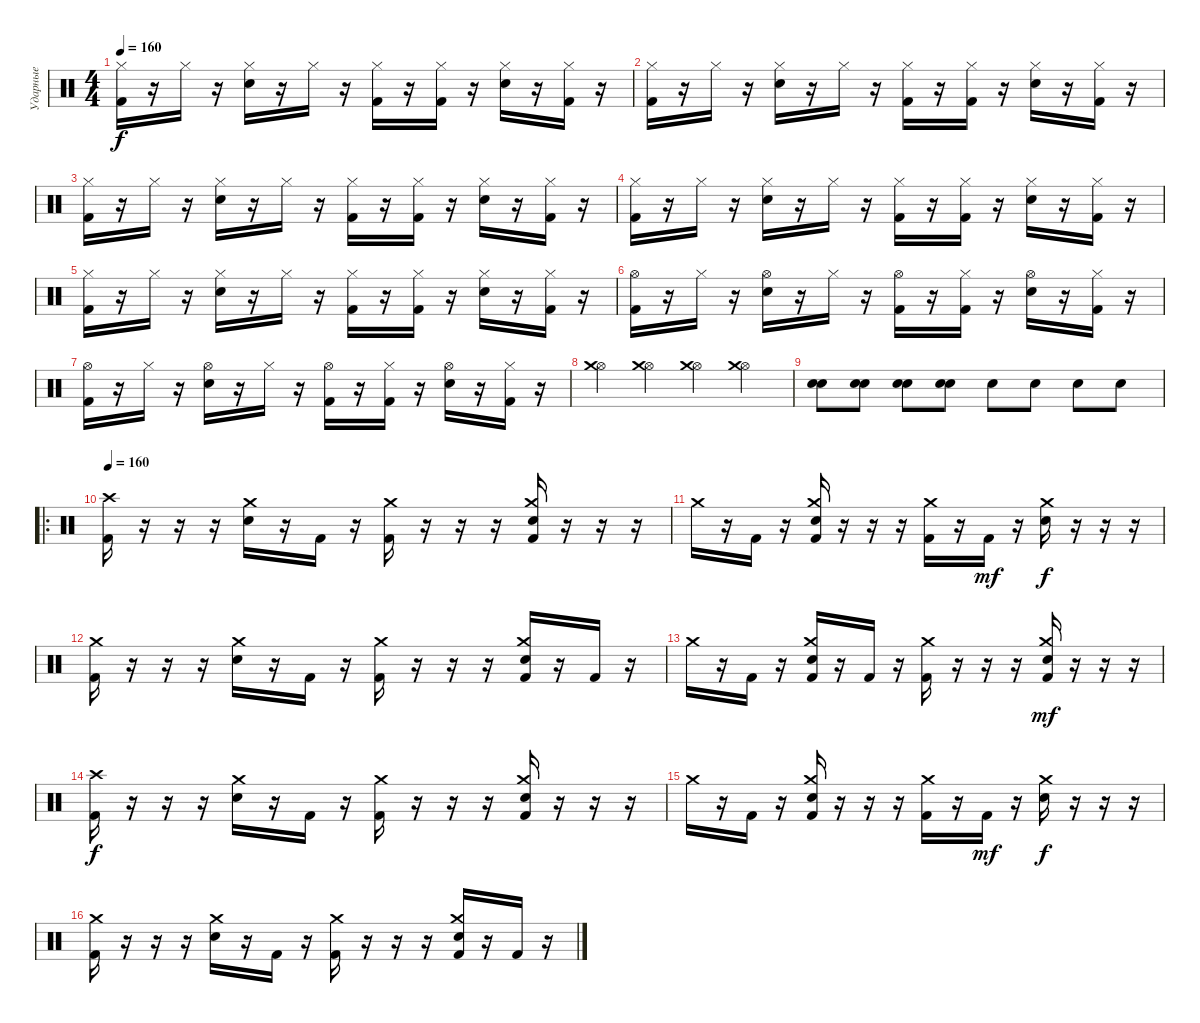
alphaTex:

\track ("Ударные" "Ударные") {instrument percussion}
\staff {score}
\articulation defaults
\ts (4 4)
\tempo 160
\clef neutral
\ks c
("Hi-Hat (closed)" "Kick (hit) 2").16{dy f} r.16 "Hi-Hat (closed)".16 r.16 ("Hi-Hat (closed)" "Snare (hit) 2").16 r.16 "Hi-Hat (closed)".16 r.16 ("Hi-Hat (closed)" "Kick (hit) 2").16 r.16 ("Hi-Hat (closed)" "Kick (hit) 2").16 r.16 ("Hi-Hat (closed)" "Snare (hit) 2").16 r.16 ("Hi-Hat (closed)" "Kick (hit) 2").16 r.16 |
("Hi-Hat (closed)" "Kick (hit) 2").16 r.16 "Hi-Hat (closed)".16 r.16 ("Hi-Hat (closed)" "Snare (hit) 2").16 r.16 "Hi-Hat (closed)".16 r.16 ("Hi-Hat (closed)" "Kick (hit) 2").16 r.16 ("Hi-Hat (closed)" "Kick (hit) 2").16 r.16 ("Hi-Hat (closed)" "Snare (hit) 2").16 r.16 ("Hi-Hat (closed)" "Kick (hit) 2").16 r.16 |
("Hi-Hat (closed)" "Kick (hit) 2").16 r.16 "Hi-Hat (closed)".16 r.16 ("Hi-Hat (closed)" "Snare (hit) 2").16 r.16 "Hi-Hat (closed)".16 r.16 ("Hi-Hat (closed)" "Kick (hit) 2").16 r.16 ("Hi-Hat (closed)" "Kick (hit) 2").16 r.16 ("Hi-Hat (closed)" "Snare (hit) 2").16 r.16 ("Hi-Hat (closed)" "Kick (hit) 2").16 r.16 |
("Hi-Hat (closed)" "Kick (hit) 2").16 r.16 "Hi-Hat (closed)".16 r.16 ("Hi-Hat (closed)" "Snare (hit) 2").16 r.16 "Hi-Hat (closed)".16 r.16 ("Hi-Hat (closed)" "Kick (hit) 2").16 r.16 ("Hi-Hat (closed)" "Kick (hit) 2").16 r.16 ("Hi-Hat (closed)" "Snare (hit) 2").16 r.16 ("Hi-Hat (closed)" "Kick (hit) 2").16 r.16 |
("Hi-Hat (closed)" "Kick (hit) 2").16 r.16 "Hi-Hat (closed)".16 r.16 ("Hi-Hat (closed)" "Snare (hit) 2").16 r.16 "Hi-Hat (closed)".16 r.16 ("Hi-Hat (closed)" "Kick (hit) 2").16 r.16 ("Hi-Hat (closed)" "Kick (hit) 2").16 r.16 ("Hi-Hat (closed)" "Snare (hit) 2").16 r.16 ("Hi-Hat (closed)" "Kick (hit) 2").16 r.16 |
("Hi-Hat (open)" "Kick (hit) 2").16 r.16 "Hi-Hat (closed)".16 r.16 ("Hi-Hat (open)" "Snare (hit) 2").16 r.16 "Hi-Hat (closed)".16 r.16 ("Hi-Hat (open)" "Kick (hit) 2").16 r.16 ("Hi-Hat (closed)" "Kick (hit) 2").16 r.16 ("Hi-Hat (open)" "Snare (hit) 2").16 r.16 ("Hi-Hat (closed)" "Kick (hit) 2").16 r.16 |
("Hi-Hat (open)" "Kick (hit) 2").16 r.16 "Hi-Hat (closed)".16 r.16 ("Hi-Hat (open)" "Snare (hit) 2").16 r.16 "Hi-Hat (closed)".16 r.16 ("Hi-Hat (open)" "Kick (hit) 2").16 r.16 ("Hi-Hat (closed)" "Kick (hit) 2").16 r.16 ("Hi-Hat (open)" "Snare (hit) 2").16 r.16 ("Hi-Hat (closed)" "Kick (hit) 2").16 r.16 |
("Hi-Hat (open)" "Crash medium (hit)").4{volume 16} ("Hi-Hat (open)" "Crash medium (hit)").4 ("Hi-Hat (open)" "Crash medium (hit)").4 ("Hi-Hat (open)" "Crash medium (hit)").4 |
("Snare (hit) 2" "Electric Snare (hit)").8{volume 16} ("Snare (hit) 2" "Electric Snare (hit)").8 ("Snare (hit) 2" "Electric Snare (hit)").8 ("Snare (hit) 2" "Electric Snare (hit)").8 "Electric Snare (hit)".8{volume 16} "Electric Snare (hit)".8 "Electric Snare (hit)".8 "Electric Snare (hit)".8 |
\ro
\tempo 190
\tempo 160
("Crash high (hit)" "Kick (hit) 2").16{volume 13} r.16 r.16 r.16 ("Crash medium (hit)" "Electric Snare (hit)").16 r.16 "Kick (hit) 2".16 r.16 ("Crash medium (hit)" "Kick (hit) 2").16 r.16 r.16 r.16 ("Crash medium (hit)" "Electric Snare (hit)" "Kick (hit) 2").16 r.16 r.16 r.16 |
"Crash medium (hit)".16 r.16 "Kick (hit) 2".16 r.16 ("Crash medium (hit)" "Electric Snare (hit)" "Kick (hit) 2").16 r.16 r.16 r.16 ("Crash medium (hit)" "Kick (hit) 2").16 r.16 "Kick (hit) 2".16{dy mf} r.16 ("Crash medium (hit)" "Electric Snare (hit)").16{dy f} r.16 r.16 r.16 |
("Crash medium (hit)" "Kick (hit) 2").16 r.16 r.16 r.16 ("Crash medium (hit)" "Electric Snare (hit)").16 r.16 "Kick (hit) 2".16 r.16 ("Crash medium (hit)" "Kick (hit) 2").16 r.16 r.16 r.16 ("Crash medium (hit)" "Electric Snare (hit)" "Kick (hit) 2").16 r.16 "Kick (hit) 2".16 r.16 |
"Crash medium (hit)".16 r.16 "Kick (hit) 2".16 r.16 ("Crash medium (hit)" "Electric Snare (hit)" "Kick (hit) 2").16 r.16 "Kick (hit) 2".16 r.16 ("Crash medium (hit)" "Kick (hit) 2").16 r.16 r.16 r.16 ("Crash medium (hit)" "Electric Snare (hit)" "Kick (hit) 2").16{dy mf} r.16 r.16 r.16 |
("Crash high (hit)" "Kick (hit) 2").16{dy f} r.16 r.16 r.16 ("Crash medium (hit)" "Electric Snare (hit)").16 r.16 "Kick (hit) 2".16 r.16 ("Crash medium (hit)" "Kick (hit) 2").16 r.16 r.16 r.16 ("Crash medium (hit)" "Electric Snare (hit)" "Kick (hit) 2").16 r.16 r.16 r.16 |
"Crash medium (hit)".16 r.16 "Kick (hit) 2".16 r.16 ("Crash medium (hit)" "Electric Snare (hit)" "Kick (hit) 2").16 r.16 r.16 r.16 ("Crash medium (hit)" "Kick (hit) 2").16 r.16 "Kick (hit) 2".16{dy mf} r.16 ("Crash medium (hit)" "Electric Snare (hit)").16{dy f} r.16 r.16 r.16 |
("Crash medium (hit)" "Kick (hit) 2").16 r.16 r.16 r.16 ("Crash medium (hit)" "Electric Snare (hit)").16 r.16 "Kick (hit) 2".16 r.16 ("Crash medium (hit)" "Kick (hit) 2").16 r.16 r.16 r.16 ("Crash medium (hit)" "Electric Snare (hit)" "Kick (hit) 2").16 r.16 "Kick (hit) 2".16 r.16
